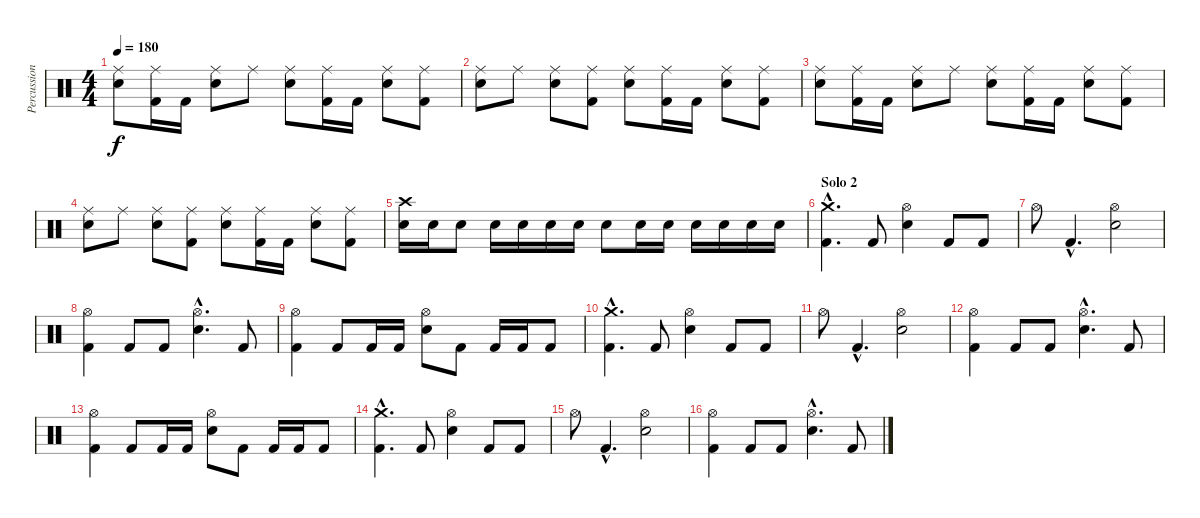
\track ("Percussion" "Percussion") {instrument percussion}
\staff {score}
\articulation defaults
\ts (4 4)
\tempo 180
\clef neutral
\ks c
("Ride (middle)" "Electric Snare (hit)").8{dy f} ("Ride (middle)" "Kick (hit) 2").16 "Kick (hit) 2".16 ("Ride (middle)" "Electric Snare (hit)").8 "Ride (middle)".8 ("Ride (middle)" "Electric Snare (hit)").8 ("Ride (middle)" "Kick (hit) 2").16 "Kick (hit) 2".16 ("Ride (middle)" "Electric Snare (hit)").8 ("Ride (middle)" "Kick (hit) 2").8 |
("Ride (middle)" "Electric Snare (hit)").8 "Ride (middle)".8 ("Ride (middle)" "Electric Snare (hit)").8 ("Ride (middle)" "Kick (hit) 2").8 ("Ride (middle)" "Electric Snare (hit)").8 ("Ride (middle)" "Kick (hit) 2").16 "Kick (hit) 2".16 ("Ride (middle)" "Electric Snare (hit)").8 ("Ride (middle)" "Kick (hit) 2").8 |
("Ride (middle)" "Electric Snare (hit)").8 ("Ride (middle)" "Kick (hit) 2").16 "Kick (hit) 2".16 ("Ride (middle)" "Electric Snare (hit)").8 "Ride (middle)".8 ("Ride (middle)" "Electric Snare (hit)").8 ("Ride (middle)" "Kick (hit) 2").16 "Kick (hit) 2".16 ("Ride (middle)" "Electric Snare (hit)").8 ("Ride (middle)" "Kick (hit) 2").8 |
("Ride (middle)" "Electric Snare (hit)").8 "Ride (middle)".8 ("Ride (middle)" "Electric Snare (hit)").8 ("Ride (middle)" "Kick (hit) 2").8 ("Ride (middle)" "Electric Snare (hit)").8 ("Ride (middle)" "Kick (hit) 2").16 "Kick (hit) 2".16 ("Ride (middle)" "Electric Snare (hit)").8 ("Ride (middle)" "Kick (hit) 2").8 |
("Crash high (hit)" "Electric Snare (hit)").16 "Electric Snare (hit)".16 "Electric Snare (hit)".8 "Electric Snare (hit)".16 "Electric Snare (hit)".16 "Electric Snare (hit)".16 "Electric Snare (hit)".16 "Electric Snare (hit)".8 "Electric Snare (hit)".16 "Electric Snare (hit)".16 "Electric Snare (hit)".16 "Electric Snare (hit)".16 "Electric Snare (hit)".16 "Electric Snare (hit)".16 |
\section ("" "Solo 2")
("Crash medium (hit)"{hac} "Kick (hit) 2"{hac}).4{d} "Kick (hit) 2".8 ("Hi-Hat (open)" "Snare (hit) 2").4 "Kick (hit) 2".8 "Kick (hit) 2".8 |
"Hi-Hat (open)".8 "Kick (hit) 2"{hac}.4{d} ("Hi-Hat (open)" "Snare (hit) 2").2 |
("Hi-Hat (open)" "Kick (hit) 2").4 "Kick (hit) 2".8 "Kick (hit) 2".8 ("Hi-Hat (open)"{hac} "Snare (hit) 2"{hac}).4{d} "Kick (hit) 2".8 |
("Hi-Hat (open)" "Kick (hit) 2").4 "Kick (hit) 2".8 "Kick (hit) 2".16 "Kick (hit) 2".16 ("Hi-Hat (open)" "Snare (hit) 2").8 "Kick (hit) 2".8 "Kick (hit) 2".16 "Kick (hit) 2".16 "Kick (hit) 2".8 |
("Crash medium (hit)"{hac} "Kick (hit) 2"{hac}).4{d} "Kick (hit) 2".8 ("Hi-Hat (open)" "Snare (hit) 2").4 "Kick (hit) 2".8 "Kick (hit) 2".8 |
"Hi-Hat (open)".8 "Kick (hit) 2"{hac}.4{d} ("Hi-Hat (open)" "Snare (hit) 2").2 |
("Hi-Hat (open)" "Kick (hit) 2").4 "Kick (hit) 2".8 "Kick (hit) 2".8 ("Hi-Hat (open)"{hac} "Snare (hit) 2"{hac}).4{d} "Kick (hit) 2".8 |
("Hi-Hat (open)" "Kick (hit) 2").4 "Kick (hit) 2".8 "Kick (hit) 2".16 "Kick (hit) 2".16 ("Hi-Hat (open)" "Snare (hit) 2").8 "Kick (hit) 2".8 "Kick (hit) 2".16 "Kick (hit) 2".16 "Kick (hit) 2".8 |
("Crash medium (hit)"{hac} "Kick (hit) 2"{hac}).4{d} "Kick (hit) 2".8 ("Hi-Hat (open)" "Snare (hit) 2").4 "Kick (hit) 2".8 "Kick (hit) 2".8 |
"Hi-Hat (open)".8 "Kick (hit) 2"{hac}.4{d} ("Hi-Hat (open)" "Snare (hit) 2").2 |
("Hi-Hat (open)" "Kick (hit) 2").4 "Kick (hit) 2".8 "Kick (hit) 2".8 ("Hi-Hat (open)"{hac} "Snare (hit) 2"{hac}).4{d} "Kick (hit) 2".8
